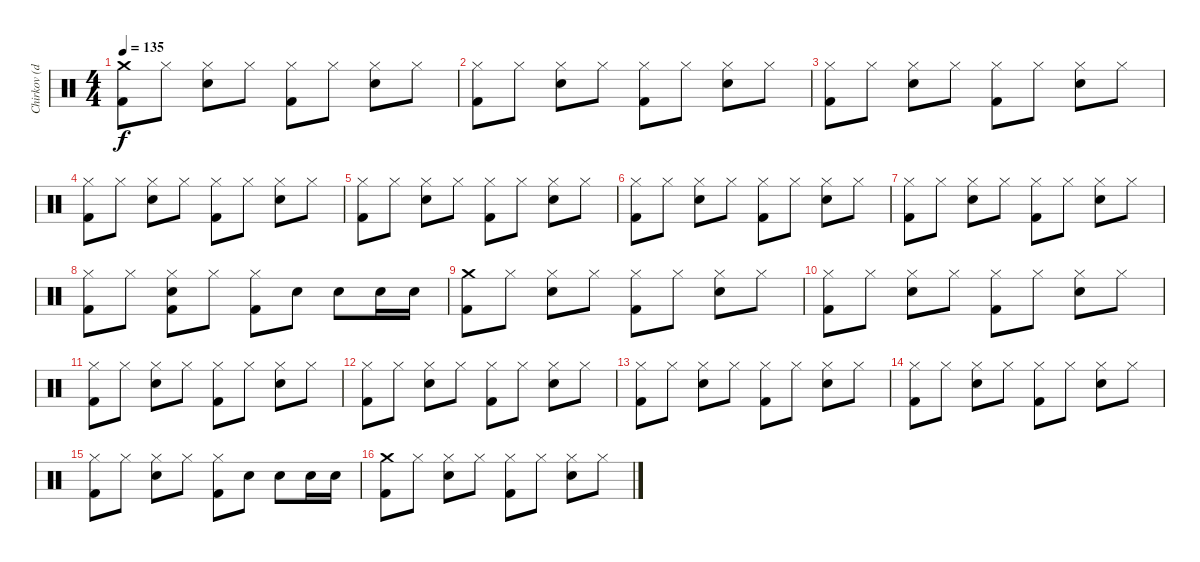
\track ("Chirkov (drums)" "Chirkov (d") {instrument percussion}
\staff {score}
\articulation defaults
\ts (4 4)
\tempo 135
\clef neutral
\ks c
("Crash medium (hit)" "Kick (hit) 2").8{dy f} "Hi-Hat (closed)".8 ("Hi-Hat (closed)" "Snare (hit) 2").8 "Hi-Hat (closed)".8 ("Hi-Hat (closed)" "Kick (hit) 2").8 "Hi-Hat (closed)".8 ("Hi-Hat (closed)" "Snare (hit) 2").8 "Hi-Hat (closed)".8 |
("Hi-Hat (closed)" "Kick (hit) 2").8 "Hi-Hat (closed)".8 ("Hi-Hat (closed)" "Snare (hit) 2").8 "Hi-Hat (closed)".8 ("Hi-Hat (closed)" "Kick (hit) 2").8 "Hi-Hat (closed)".8 ("Hi-Hat (closed)" "Snare (hit) 2").8 "Hi-Hat (closed)".8 |
("Hi-Hat (closed)" "Kick (hit) 2").8 "Hi-Hat (closed)".8 ("Hi-Hat (closed)" "Snare (hit) 2").8 "Hi-Hat (closed)".8 ("Hi-Hat (closed)" "Kick (hit) 2").8 "Hi-Hat (closed)".8 ("Hi-Hat (closed)" "Snare (hit) 2").8 "Hi-Hat (closed)".8 |
("Hi-Hat (closed)" "Kick (hit) 2").8 "Hi-Hat (closed)".8 ("Hi-Hat (closed)" "Snare (hit) 2").8 "Hi-Hat (closed)".8 ("Hi-Hat (closed)" "Kick (hit) 2").8 "Hi-Hat (closed)".8 ("Hi-Hat (closed)" "Snare (hit) 2").8 "Hi-Hat (closed)".8 |
("Hi-Hat (closed)" "Kick (hit) 2").8 "Hi-Hat (closed)".8 ("Hi-Hat (closed)" "Snare (hit) 2").8 "Hi-Hat (closed)".8 ("Hi-Hat (closed)" "Kick (hit) 2").8 "Hi-Hat (closed)".8 ("Hi-Hat (closed)" "Snare (hit) 2").8 "Hi-Hat (closed)".8 |
("Hi-Hat (closed)" "Kick (hit) 2").8 "Hi-Hat (closed)".8 ("Hi-Hat (closed)" "Snare (hit) 2").8 "Hi-Hat (closed)".8 ("Hi-Hat (closed)" "Kick (hit) 2").8 "Hi-Hat (closed)".8 ("Hi-Hat (closed)" "Snare (hit) 2").8 "Hi-Hat (closed)".8 |
("Hi-Hat (closed)" "Kick (hit) 2").8 "Hi-Hat (closed)".8 ("Hi-Hat (closed)" "Snare (hit) 2").8 "Hi-Hat (closed)".8 ("Hi-Hat (closed)" "Kick (hit) 2").8 "Hi-Hat (closed)".8 ("Hi-Hat (closed)" "Snare (hit) 2").8 "Hi-Hat (closed)".8 |
("Hi-Hat (closed)" "Kick (hit) 2").8 "Hi-Hat (closed)".8 ("Hi-Hat (closed)" "Snare (hit) 2" "Kick (hit) 2").8 "Hi-Hat (closed)".8 ("Hi-Hat (closed)" "Kick (hit) 2").8 "Snare (hit) 2".8 "Snare (hit) 2".8 "Snare (hit) 2".16 "Snare (hit) 2".16 |
("Crash medium (hit)" "Kick (hit) 2").8 "Hi-Hat (closed)".8 ("Hi-Hat (closed)" "Snare (hit) 2").8 "Hi-Hat (closed)".8 ("Hi-Hat (closed)" "Kick (hit) 2").8 "Hi-Hat (closed)".8 ("Hi-Hat (closed)" "Snare (hit) 2").8 "Hi-Hat (closed)".8 |
("Hi-Hat (closed)" "Kick (hit) 2").8 "Hi-Hat (closed)".8 ("Hi-Hat (closed)" "Snare (hit) 2").8 "Hi-Hat (closed)".8 ("Hi-Hat (closed)" "Kick (hit) 2").8 "Hi-Hat (closed)".8 ("Hi-Hat (closed)" "Snare (hit) 2").8 "Hi-Hat (closed)".8 |
("Hi-Hat (closed)" "Kick (hit) 2").8 "Hi-Hat (closed)".8 ("Hi-Hat (closed)" "Snare (hit) 2").8 "Hi-Hat (closed)".8 ("Hi-Hat (closed)" "Kick (hit) 2").8 "Hi-Hat (closed)".8 ("Hi-Hat (closed)" "Snare (hit) 2").8 "Hi-Hat (closed)".8 |
("Hi-Hat (closed)" "Kick (hit) 2").8 "Hi-Hat (closed)".8 ("Hi-Hat (closed)" "Snare (hit) 2").8 "Hi-Hat (closed)".8 ("Hi-Hat (closed)" "Kick (hit) 2").8 "Hi-Hat (closed)".8 ("Hi-Hat (closed)" "Snare (hit) 2").8 "Hi-Hat (closed)".8 |
("Hi-Hat (closed)" "Kick (hit) 2").8 "Hi-Hat (closed)".8 ("Hi-Hat (closed)" "Snare (hit) 2").8 "Hi-Hat (closed)".8 ("Hi-Hat (closed)" "Kick (hit) 2").8 "Hi-Hat (closed)".8 ("Hi-Hat (closed)" "Snare (hit) 2").8 "Hi-Hat (closed)".8 |
("Hi-Hat (closed)" "Kick (hit) 2").8 "Hi-Hat (closed)".8 ("Hi-Hat (closed)" "Snare (hit) 2").8 "Hi-Hat (closed)".8 ("Hi-Hat (closed)" "Kick (hit) 2").8 "Hi-Hat (closed)".8 ("Hi-Hat (closed)" "Snare (hit) 2").8 "Hi-Hat (closed)".8 |
("Hi-Hat (closed)" "Kick (hit) 2").8 "Hi-Hat (closed)".8 ("Hi-Hat (closed)" "Snare (hit) 2").8 "Hi-Hat (closed)".8 ("Hi-Hat (closed)" "Kick (hit) 2").8 "Snare (hit) 2".8 "Snare (hit) 2".8 "Snare (hit) 2".16 "Snare (hit) 2".16 |
("Crash medium (hit)" "Kick (hit) 2").8 "Hi-Hat (closed)".8 ("Hi-Hat (closed)" "Snare (hit) 2").8 "Hi-Hat (closed)".8 ("Hi-Hat (closed)" "Kick (hit) 2").8 "Hi-Hat (closed)".8 ("Hi-Hat (closed)" "Snare (hit) 2").8 "Hi-Hat (closed)".8
